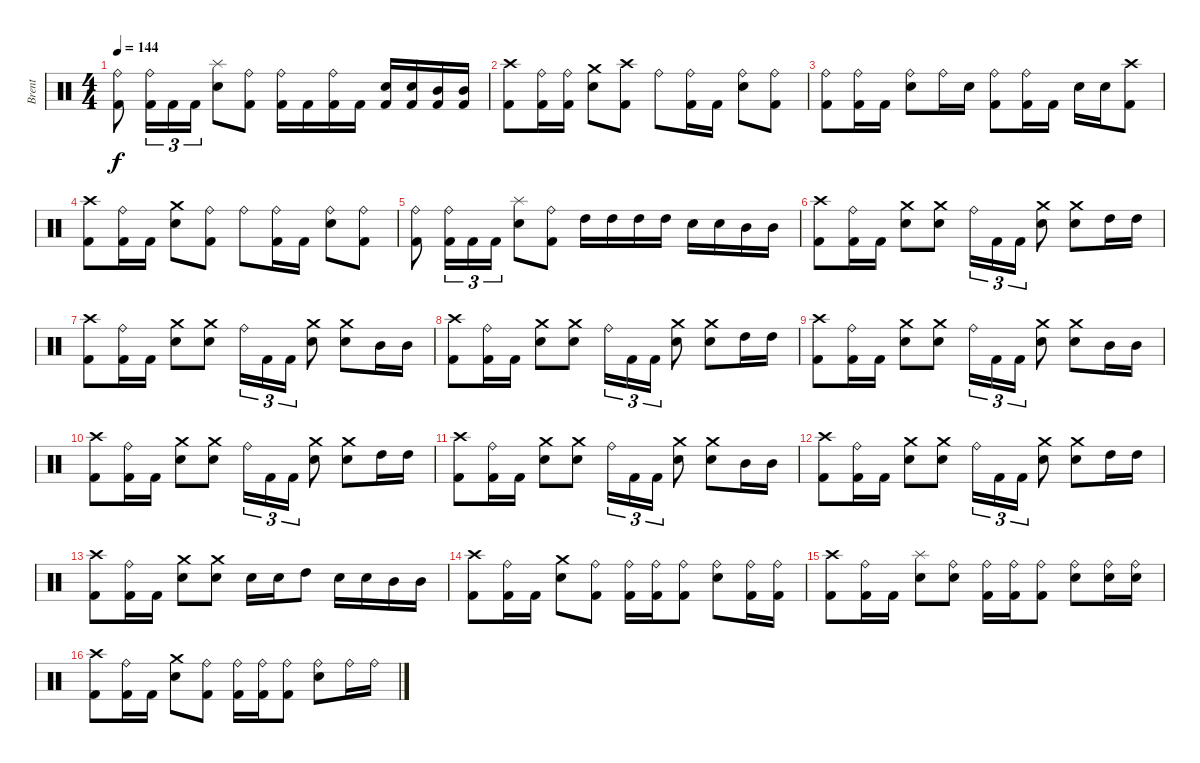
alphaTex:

\track ("Brent" "Brent") {instrument percussion}
\staff {score}
\articulation defaults
\ts (4 4)
\tempo 144
\clef neutral
\ks c
("Ride (bell)" "Kick (hit) 2").8{dy f} ("Ride (bell)" "Kick (hit) 2").16{tu (3 2)} "Kick (hit) 2".16{tu (3 2)} "Kick (hit) 2".16{tu (3 2)} ("Splash (hit)" "Snare (hit) 2").8 ("Ride (bell)" "Kick (hit) 2").8 ("Ride (bell)" "Kick (hit) 2").16 "Kick (hit) 2".16 ("Ride (bell)" "Kick (hit) 2").16 "Kick (hit) 2".16 ("Snare (hit) 2" "Kick (hit) 2").16 ("Snare (hit) 2" "Kick (hit) 2").16 ("Mid Tom (hit)" "Kick (hit) 2").16 ("Mid Tom (hit)" "Kick (hit) 2").16 |
("Crash high (hit)" "Kick (hit) 2").8 ("Ride (bell)" "Kick (hit) 2").16 ("Ride (bell)" "Kick (hit) 2").16 ("Crash medium (hit)" "Snare (hit) 2").8 ("Crash high (hit)" "Kick (hit) 2").8 "Ride (bell)".8 ("Ride (bell)" "Kick (hit) 2").16 "Kick (hit) 2".16 ("Ride (bell)" "Snare (hit) 2").8 ("Ride (bell)" "Kick (hit) 2").8 |
("Ride (bell)" "Kick (hit) 2").8 ("Ride (bell)" "Kick (hit) 2").16 "Kick (hit) 2".16 ("Ride (bell)" "Snare (hit) 2").8 "Ride (bell)".16 "Snare (hit) 2".16 ("Ride (bell)" "Kick (hit) 2").8 ("Ride (bell)" "Kick (hit) 2").16 "Kick (hit) 2".16 "Snare (hit) 2".16 "Snare (hit) 2".16 ("Crash high (hit)" "Kick (hit) 2").8 |
("Crash high (hit)" "Kick (hit) 2").8 ("Ride (bell)" "Kick (hit) 2").16 "Kick (hit) 2".16 ("Crash medium (hit)" "Snare (hit) 2").8 ("Ride (bell)" "Kick (hit) 2").8 "Ride (bell)".8 ("Ride (bell)" "Kick (hit) 2").16 "Kick (hit) 2".16 ("Ride (bell)" "Snare (hit) 2").8 ("Ride (bell)" "Kick (hit) 2").8 |
("Ride (bell)" "Kick (hit) 2").8 ("Ride (bell)" "Kick (hit) 2").16{tu (3 2)} "Kick (hit) 2".16{tu (3 2)} "Kick (hit) 2".16{tu (3 2)} ("Splash (hit)" "Snare (hit) 2").8 ("Ride (bell)" "Kick (hit) 2").8 "High Tom (hit)".16 "High Tom (hit)".16 "High Tom (hit)".16 "High Tom (hit)".16 "Snare (hit) 2".16 "Snare (hit) 2".16 "Mid Tom (hit)".16 "Mid Tom (hit)".16 |
("Crash high (hit)" "Kick (hit) 2").8 ("Ride (bell)" "Kick (hit) 2").16 "Kick (hit) 2".16 ("Crash medium (hit)" "Snare (hit) 2").8 ("Crash medium (hit)" "Snare (hit) 2").8 "Ride (bell)".16{tu (3 2)} "Kick (hit) 2".16{tu (3 2)} "Kick (hit) 2".16{tu (3 2)} ("Crash medium (hit)" "Snare (hit) 2").8 ("Crash medium (hit)" "Snare (hit) 2").8 "High Tom (hit)".16 "High Tom (hit)".16 |
("Crash high (hit)" "Kick (hit) 2").8 ("Ride (bell)" "Kick (hit) 2").16 "Kick (hit) 2".16 ("Crash medium (hit)" "Snare (hit) 2").8 ("Crash medium (hit)" "Snare (hit) 2").8 "Ride (bell)".16{tu (3 2)} "Kick (hit) 2".16{tu (3 2)} "Kick (hit) 2".16{tu (3 2)} ("Crash medium (hit)" "Snare (hit) 2").8 ("Crash medium (hit)" "Snare (hit) 2").8 "Mid Tom (hit)".16 "Mid Tom (hit)".16 |
("Crash high (hit)" "Kick (hit) 2").8 ("Ride (bell)" "Kick (hit) 2").16 "Kick (hit) 2".16 ("Crash medium (hit)" "Snare (hit) 2").8 ("Crash medium (hit)" "Snare (hit) 2").8 "Ride (bell)".16{tu (3 2)} "Kick (hit) 2".16{tu (3 2)} "Kick (hit) 2".16{tu (3 2)} ("Crash medium (hit)" "Snare (hit) 2").8 ("Crash medium (hit)" "Snare (hit) 2").8 "High Tom (hit)".16 "High Tom (hit)".16 |
("Crash high (hit)" "Kick (hit) 2").8 ("Ride (bell)" "Kick (hit) 2").16 "Kick (hit) 2".16 ("Crash medium (hit)" "Snare (hit) 2").8 ("Crash medium (hit)" "Snare (hit) 2").8 "Ride (bell)".16{tu (3 2)} "Kick (hit) 2".16{tu (3 2)} "Kick (hit) 2".16{tu (3 2)} ("Crash medium (hit)" "Snare (hit) 2").8 ("Crash medium (hit)" "Snare (hit) 2").8 "Mid Tom (hit)".16 "Mid Tom (hit)".16 |
("Crash high (hit)" "Kick (hit) 2").8 ("Ride (bell)" "Kick (hit) 2").16 "Kick (hit) 2".16 ("Crash medium (hit)" "Snare (hit) 2").8 ("Crash medium (hit)" "Snare (hit) 2").8 "Ride (bell)".16{tu (3 2)} "Kick (hit) 2".16{tu (3 2)} "Kick (hit) 2".16{tu (3 2)} ("Crash medium (hit)" "Snare (hit) 2").8 ("Crash medium (hit)" "Snare (hit) 2").8 "High Tom (hit)".16 "High Tom (hit)".16 |
("Crash high (hit)" "Kick (hit) 2").8 ("Ride (bell)" "Kick (hit) 2").16 "Kick (hit) 2".16 ("Crash medium (hit)" "Snare (hit) 2").8 ("Crash medium (hit)" "Snare (hit) 2").8 "Ride (bell)".16{tu (3 2)} "Kick (hit) 2".16{tu (3 2)} "Kick (hit) 2".16{tu (3 2)} ("Crash medium (hit)" "Snare (hit) 2").8 ("Crash medium (hit)" "Snare (hit) 2").8 "Mid Tom (hit)".16 "Mid Tom (hit)".16 |
("Crash high (hit)" "Kick (hit) 2").8 ("Ride (bell)" "Kick (hit) 2").16 "Kick (hit) 2".16 ("Crash medium (hit)" "Snare (hit) 2").8 ("Crash medium (hit)" "Snare (hit) 2").8 "Ride (bell)".16{tu (3 2)} "Kick (hit) 2".16{tu (3 2)} "Kick (hit) 2".16{tu (3 2)} ("Crash medium (hit)" "Snare (hit) 2").8 ("Crash medium (hit)" "Snare (hit) 2").8 "High Tom (hit)".16 "High Tom (hit)".16 |
("Crash high (hit)" "Kick (hit) 2").8 ("Ride (bell)" "Kick (hit) 2").16 "Kick (hit) 2".16 ("Crash medium (hit)" "Snare (hit) 2").8 ("Crash medium (hit)" "Snare (hit) 2").8 "Snare (hit) 2".16 "Snare (hit) 2".16 "High Tom (hit)".8 "Snare (hit) 2".16 "Snare (hit) 2".16 "Mid Tom (hit)".16 "Mid Tom (hit)".16 |
("Crash high (hit)" "Kick (hit) 2").8 ("Ride (bell)" "Kick (hit) 2").16 "Kick (hit) 2".16 ("Crash medium (hit)" "Snare (hit) 2").8 ("Ride (bell)" "Kick (hit) 2").8 ("Ride (bell)" "Kick (hit) 2").16 ("Ride (bell)" "Kick (hit) 2").16 ("Ride (bell)" "Kick (hit) 2").8 ("Ride (bell)" "Snare (hit) 2").8 ("Ride (bell)" "Kick (hit) 2").16 ("Ride (bell)" "Kick (hit) 2").16 |
("Crash high (hit)" "Kick (hit) 2").8 ("Ride (bell)" "Kick (hit) 2").16 "Kick (hit) 2".16 ("Splash (hit)" "Snare (hit) 2").8 ("Ride (bell)" "Snare (hit) 2").8 ("Ride (bell)" "Kick (hit) 2").16 ("Ride (bell)" "Kick (hit) 2").16 ("Ride (bell)" "Kick (hit) 2").8 ("Ride (bell)" "Snare (hit) 2").8 ("Ride (bell)" "Snare (hit) 2").16 ("Ride (bell)" "Snare (hit) 2").16 |
("Crash high (hit)" "Kick (hit) 2").8 ("Ride (bell)" "Kick (hit) 2").16 "Kick (hit) 2".16 ("Crash medium (hit)" "Snare (hit) 2").8 ("Ride (bell)" "Kick (hit) 2").8 ("Ride (bell)" "Kick (hit) 2").16 ("Ride (bell)" "Kick (hit) 2").16 ("Ride (bell)" "Kick (hit) 2").8 ("Ride (bell)" "Snare (hit) 2").8 "Ride (bell)".16 "Ride (bell)".16
